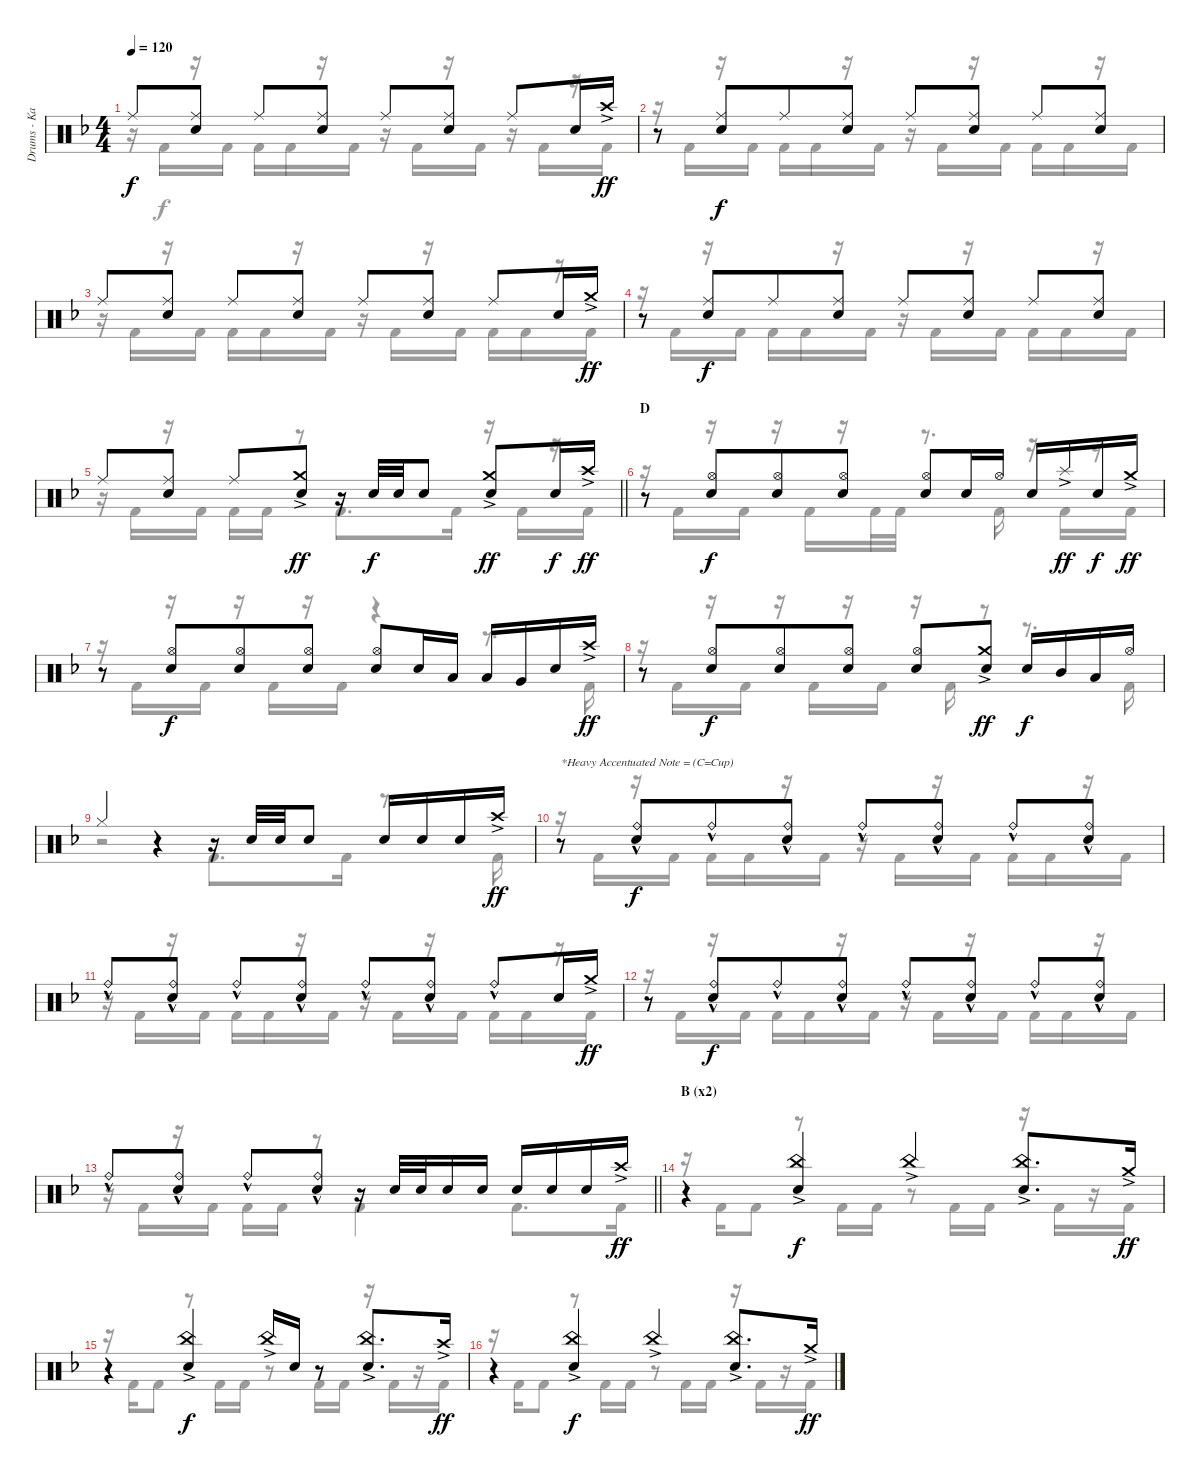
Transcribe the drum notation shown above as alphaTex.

\track ("Drums - Kai" "Drums - Ka") {instrument percussion}
\staff {score}
\articulation defaults
\voice
\ts (4 4)
\tempo 120
\clef neutral
\ks f "Ride (middle)".8{dy f}
("Ride (middle)" "Electric Snare (hit)").8 "Ride (middle)".8 ("Ride (middle)" "Electric Snare (hit)").8 "Ride (middle)".8 ("Ride (middle)" "Electric Snare (hit)").8 "Ride (middle)".8 "Electric Snare (hit)".16 "Crash high (hit)"{ac}.16{dy ff} |
r.8 ("Ride (middle)" "Electric Snare (hit)").8{dy f beam merge} "Ride (middle)".8 ("Ride (middle)" "Electric Snare (hit)").8 "Ride (middle)".8 ("Ride (middle)" "Electric Snare (hit)").8 "Ride (middle)".8 ("Ride (middle)" "Electric Snare (hit)").8 |
"Ride (middle)".8 ("Ride (middle)" "Electric Snare (hit)").8 "Ride (middle)".8 ("Ride (middle)" "Electric Snare (hit)").8 "Ride (middle)".8 ("Ride (middle)" "Electric Snare (hit)").8 "Ride (middle)".8 "Electric Snare (hit)".16 "Crash medium (hit)"{ac}.16{dy ff} |
r.8 ("Ride (middle)" "Electric Snare (hit)").8{dy f beam merge} "Ride (middle)".8 ("Ride (middle)" "Electric Snare (hit)").8 "Ride (middle)".8 ("Ride (middle)" "Electric Snare (hit)").8 "Ride (middle)".8 ("Ride (middle)" "Electric Snare (hit)").8 |
\barLineRight lightlight "Ride (middle)".8
("Ride (middle)" "Electric Snare (hit)").8 "Ride (middle)".8 ("Crash medium (hit)"{ac} "Electric Snare (hit)").8{dy ff} r.16 "Electric Snare (hit)".32{dy f} "Electric Snare (hit)".32 "Electric Snare (hit)".8 ("Crash medium (hit)"{ac} "Electric Snare (hit)").8{dy ff} "Electric Snare (hit)".16{dy f} "Crash high (hit)"{ac}.16{dy ff} |
\section ("" "D")
r.8 ("Hi-Hat (open)" "Electric Snare (hit)").8{dy f beam merge} ("Hi-Hat (open)" "Electric Snare (hit)").8 ("Hi-Hat (open)" "Electric Snare (hit)").8 ("Hi-Hat (open)" "Electric Snare (hit)").8 "Electric Snare (hit)".16 "Hi-Hat (open)".16 "Electric Snare (hit)".16 "Splash (hit)"{ac}.16{dy ff} "Electric Snare (hit)".16{dy f} "Crash medium (hit)"{ac}.16{dy ff} |
r.8 ("Hi-Hat (open)" "Electric Snare (hit)").8{dy f beam merge} ("Hi-Hat (open)" "Electric Snare (hit)").8 ("Hi-Hat (open)" "Electric Snare (hit)").8 ("Hi-Hat (open)" "Electric Snare (hit)").8 "Electric Snare (hit)".16 "Low Tom (hit)".16 "Low Tom (hit)".16 "Very Low Tom (hit)".16 "Electric Snare (hit)".16 "Crash high (hit)"{ac}.16{dy ff} |
r.8 ("Hi-Hat (open)" "Electric Snare (hit)").8{dy f beam merge} ("Hi-Hat (open)" "Electric Snare (hit)").8 ("Hi-Hat (open)" "Electric Snare (hit)").8 ("Hi-Hat (open)" "Electric Snare (hit)").8 ("Crash medium (hit)"{ac} "Electric Snare (hit)").8{dy ff} "Electric Snare (hit)".16{dy f} "Mid Tom (hit)".16 "Low Tom (hit)".16 "Hi-Hat (open)".16 |
"Hi-Hat (closed)".4 r.4 r.16 "Electric Snare (hit)".32 "Electric Snare (hit)".32 "Electric Snare (hit)".8 "Electric Snare (hit)".16 "Electric Snare (hit)".16 "Electric Snare (hit)".16 "Crash high (hit)"{ac}.16{dy ff} |
r.8{txt "*Heavy Accentuated Note = (C=Cup)"} ("Ride (bell)"{hac} "Electric Snare (hit)").8{dy f beam merge} "Ride (bell)"{hac}.8 ("Ride (bell)"{hac} "Electric Snare (hit)").8 "Ride (bell)"{hac}.8 ("Ride (bell)"{hac} "Electric Snare (hit)").8 "Ride (bell)"{hac}.8 ("Ride (bell)"{hac} "Electric Snare (hit)").8 |
"Ride (bell)"{hac}.8 ("Ride (bell)"{hac} "Electric Snare (hit)").8 "Ride (bell)"{hac}.8 ("Ride (bell)"{hac} "Electric Snare (hit)").8 "Ride (bell)"{hac}.8 ("Ride (bell)"{hac} "Electric Snare (hit)").8 "Ride (bell)"{hac}.8 "Electric Snare (hit)".16 "Crash medium (hit)"{ac}.16{dy ff} |
r.8 ("Ride (bell)"{hac} "Electric Snare (hit)").8{dy f beam merge} "Ride (bell)"{hac}.8 ("Ride (bell)"{hac} "Electric Snare (hit)").8 "Ride (bell)"{hac}.8 ("Ride (bell)"{hac} "Electric Snare (hit)").8 "Ride (bell)"{hac}.8 ("Ride (bell)"{hac} "Electric Snare (hit)").8 |
\barLineRight lightlight "Ride (bell)"{hac}.8
("Ride (bell)"{hac} "Electric Snare (hit)").8 "Ride (bell)"{hac}.8 ("Ride (bell)"{hac} "Electric Snare (hit)").8 r.16 "Electric Snare (hit)".32 "Electric Snare (hit)".32 "Electric Snare (hit)".16 "Electric Snare (hit)".16 "Electric Snare (hit)".16 "Electric Snare (hit)".16 "Electric Snare (hit)".16 "Crash high (hit)"{ac}.16{dy ff} |
\section ("" "B (x2)")
r.4 ("China (hit)"{ac} "Electric Snare (hit)").4{dy f} "China (hit)"{ac}.4 ("China (hit)"{ac} "Electric Snare (hit)").8{d} "Crash medium (hit)"{ac}.16{dy ff} |
r.4 ("China (hit)"{ac} "Electric Snare (hit)").4{dy f} "China (hit)"{ac}.16 "Electric Snare (hit)".16 r.8 ("China (hit)"{ac} "Electric Snare (hit)").8{d} "Crash high (hit)"{ac}.16{dy ff} |
r.4 ("China (hit)"{ac} "Electric Snare (hit)").4{dy f} "China (hit)"{ac}.4 ("China (hit)"{ac} "Electric Snare (hit)").8{d} "Crash medium (hit)"{ac}.16{dy ff}
\voice
\clef neutral
\ottava regular
\simile none
\ks f
r.16{dy f} "Kick (hit) 2".16 r.16 "Kick (hit) 2".16 "Kick (hit) 2".16 "Kick (hit) 2".16 r.16 "Kick (hit) 2".16 r.16 "Kick (hit) 2".16 r.16 "Kick (hit) 2".16 r.16 "Kick (hit) 2".16 r.16 "Kick (hit) 2".16 |
r.16 "Kick (hit) 2".16 r.16 "Kick (hit) 2".16 "Kick (hit) 2".16 "Kick (hit) 2".16 r.16 "Kick (hit) 2".16 r.16 "Kick (hit) 2".16 r.16 "Kick (hit) 2".16 "Kick (hit) 2".16 "Kick (hit) 2".16 r.16 "Kick (hit) 2".16 |
r.16 "Kick (hit) 2".16 r.16 "Kick (hit) 2".16 "Kick (hit) 2".16 "Kick (hit) 2".16 r.16 "Kick (hit) 2".16 r.16 "Kick (hit) 2".16 r.16 "Kick (hit) 2".16 "Kick (hit) 2".16 "Kick (hit) 2".16 r.16 "Kick (hit) 2".16 |
r.16 "Kick (hit) 2".16 r.16 "Kick (hit) 2".16 "Kick (hit) 2".16 "Kick (hit) 2".16 r.16 "Kick (hit) 2".16 r.16 "Kick (hit) 2".16 r.16 "Kick (hit) 2".16 "Kick (hit) 2".16 "Kick (hit) 2".16 r.16 "Kick (hit) 2".16 |
\barLineRight lightlight
r.16 "Kick (hit) 2".16 r.16 "Kick (hit) 2".16 "Kick (hit) 2".16 "Kick (hit) 2".16 r.8 "Kick (hit) 2".8{d} "Kick (hit) 2".16 r.16 "Kick (hit) 2".16 r.16 "Kick (hit) 2".16 |
r.16 "Kick (hit) 2".16 r.16 "Kick (hit) 2".16 r.16 "Kick (hit) 2".16 r.16 "Kick (hit) 2".32 "Kick (hit) 2".32 r.8{d} "Kick (hit) 2".16 r.16 "Kick (hit) 2".16 r.16 "Kick (hit) 2".16 |
r.16 "Kick (hit) 2".16 r.16 "Kick (hit) 2".16 r.16 "Kick (hit) 2".16 r.16 "Kick (hit) 2".16 r.4 r.8{d} "Kick (hit) 2".16 |
r.16 "Kick (hit) 2".16 r.16 "Kick (hit) 2".16 r.16 "Kick (hit) 2".16 r.16 "Kick (hit) 2".16 r.16 "Kick (hit) 2".16 r.8 r.8{d} "Kick (hit) 2".16 |
r.2 "Kick (hit) 2".8{d} "Kick (hit) 2".16 r.8{d} "Kick (hit) 2".16 |
r.16 "Kick (hit) 2".16 r.16 "Kick (hit) 2".16 "Kick (hit) 2".16 "Kick (hit) 2".16 r.16 "Kick (hit) 2".16 r.16 "Kick (hit) 2".16 r.16 "Kick (hit) 2".16 "Kick (hit) 2".16 "Kick (hit) 2".16 r.16 "Kick (hit) 2".16 |
r.16 "Kick (hit) 2".16 r.16 "Kick (hit) 2".16 "Kick (hit) 2".16 "Kick (hit) 2".16 r.16 "Kick (hit) 2".16 r.16 "Kick (hit) 2".16 r.16 "Kick (hit) 2".16 "Kick (hit) 2".16 "Kick (hit) 2".16 r.16 "Kick (hit) 2".16 |
r.16 "Kick (hit) 2".16 r.16 "Kick (hit) 2".16 "Kick (hit) 2".16 "Kick (hit) 2".16 r.16 "Kick (hit) 2".16 r.16 "Kick (hit) 2".16 r.16 "Kick (hit) 2".16 "Kick (hit) 2".16 "Kick (hit) 2".16 r.16 "Kick (hit) 2".16 |
\barLineRight lightlight
r.16 "Kick (hit) 2".16 r.16 "Kick (hit) 2".16 "Kick (hit) 2".16 "Kick (hit) 2".16 r.8 "Kick (hit) 2".4 "Kick (hit) 2".8{d} "Kick (hit) 2".16 |
r.16 "Kick (hit) 2".16 "Kick (hit) 2".8 r.8 "Kick (hit) 2".16 "Kick (hit) 2".16 r.8 "Kick (hit) 2".16 "Kick (hit) 2".16 r.16 "Kick (hit) 2".16 r.16 "Kick (hit) 2".16 |
r.16 "Kick (hit) 2".16 "Kick (hit) 2".8 r.8 "Kick (hit) 2".16 "Kick (hit) 2".16 r.8 "Kick (hit) 2".16 "Kick (hit) 2".16 r.16 "Kick (hit) 2".16 r.16 "Kick (hit) 2".16 |
r.16 "Kick (hit) 2".16 "Kick (hit) 2".8 r.8 "Kick (hit) 2".16 "Kick (hit) 2".16 r.8 "Kick (hit) 2".16 "Kick (hit) 2".16 r.16 "Kick (hit) 2".16 r.16 "Kick (hit) 2".16
